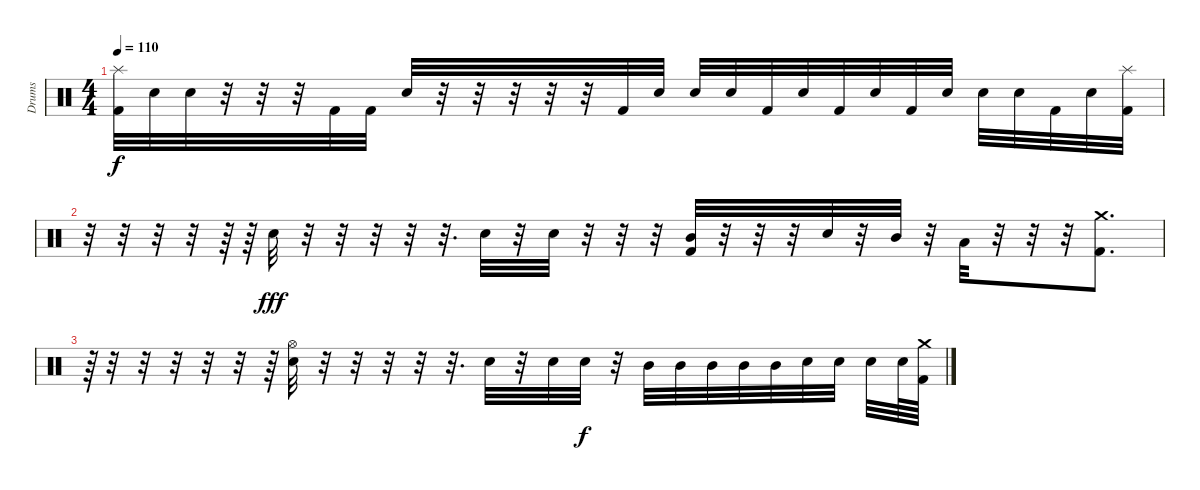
\track ("Drums" "Drums") {instrument percussion}
\staff {score}
\articulation defaults
\ts (4 4)
\tempo 110
\clef neutral
\ks c
("Splash (hit)" "Kick (hit) 2").32{dy f} "Snare (hit)".32 "Snare (hit)".32 r.32 r.32 r.32 "Kick (hit) 2".32 "Kick (hit) 2".32 "Snare (hit) 2".32 r.32 r.32 r.32 r.32 r.32 "Kick (hit) 2".32 "Snare (hit)".32 "Snare (hit) 2".32 "Snare (hit)".32 "Kick (hit) 2".32 "Snare (hit)".32 "Kick (hit) 2".32 "Snare (hit)".32 "Kick (hit) 2".32 "Snare (hit)".32 "Snare (hit) 2".32 "Snare (hit)".32 "Kick (hit) 2".32 "Snare (hit)".32 ("Splash (hit)" "Kick (hit) 2").32 |
r.32 r.32 r.32 r.32 r.64 r.64 "Snare (hit) 2".32{dy fff} r.32 r.32 r.32 r.32 r.32{d} "Snare (hit) 2".32 r.32 "Snare (hit) 2".32 r.32 r.32 r.32 ("Mid Tom (hit)" "Kick (hit) 2").32 r.32 r.32 r.32 "Snare (hit) 2".32 r.32 "Mid Tom (hit)".32 r.32 "Low Tom (hit)".32 r.32 r.32 r.32 ("Crash medium (hit)" "Kick (hit) 2").8{d} |
r.64 r.32 r.32 r.32 r.32 r.32 r.64 ("Hi-Hat (open)" "Snare (hit) 2").32 r.32 r.32 r.32 r.32 r.32{d} "Snare (hit) 2".32 r.32 "Snare (hit) 2".32 "Snare (hit)".32{dy f} r.32 "Mid Tom (hit)".32 "Mid Tom (hit)".32 "Mid Tom (hit)".32 "Mid Tom (hit)".32 "Mid Tom (hit)".32 "Snare (hit)".32 "Snare (hit)".32 "Snare (hit)".32 "Snare (hit)".64 ("Crash medium (hit)" "Kick (hit) 2").64
